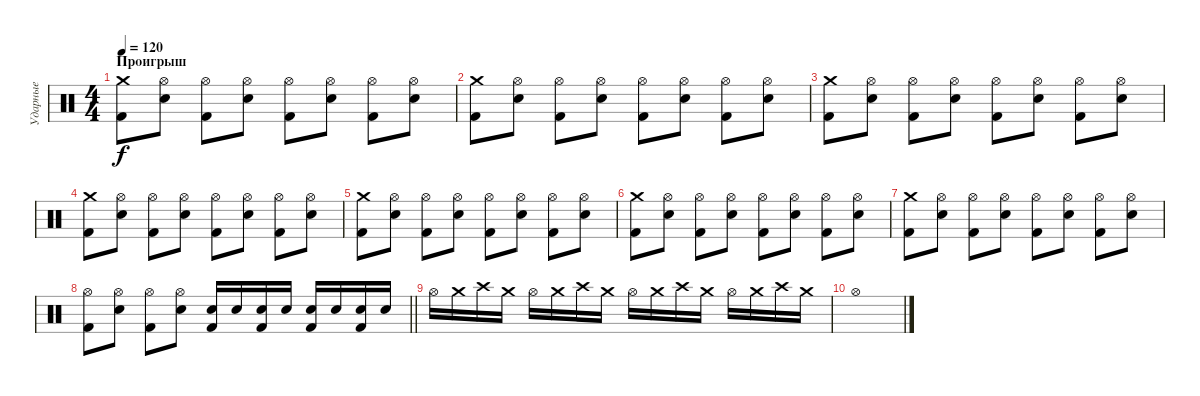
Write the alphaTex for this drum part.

\track ("Ударные" "Ударные") {instrument percussion}
\staff {score}
\articulation defaults
\ts (4 4)
\section ("" "Проигрыш")
\tempo 120
\clef neutral
\ks c
("Crash medium (hit)" "Kick (hit) 2").8{dy f} ("Hi-Hat (open)" "Snare (hit) 2").8 ("Hi-Hat (open)" "Kick (hit) 2").8 ("Hi-Hat (open)" "Snare (hit) 2").8 ("Hi-Hat (open)" "Kick (hit) 2").8 ("Hi-Hat (open)" "Snare (hit) 2").8 ("Hi-Hat (open)" "Kick (hit) 2").8 ("Hi-Hat (open)" "Snare (hit) 2").8 |
("Crash medium (hit)" "Kick (hit) 2").8 ("Hi-Hat (open)" "Snare (hit) 2").8 ("Hi-Hat (open)" "Kick (hit) 2").8 ("Hi-Hat (open)" "Snare (hit) 2").8 ("Hi-Hat (open)" "Kick (hit) 2").8 ("Hi-Hat (open)" "Snare (hit) 2").8 ("Hi-Hat (open)" "Kick (hit) 2").8 ("Hi-Hat (open)" "Snare (hit) 2").8 |
("Crash medium (hit)" "Kick (hit) 2").8 ("Hi-Hat (open)" "Snare (hit) 2").8 ("Hi-Hat (open)" "Kick (hit) 2").8 ("Hi-Hat (open)" "Snare (hit) 2").8 ("Hi-Hat (open)" "Kick (hit) 2").8 ("Hi-Hat (open)" "Snare (hit) 2").8 ("Hi-Hat (open)" "Kick (hit) 2").8 ("Hi-Hat (open)" "Snare (hit) 2").8 |
("Crash medium (hit)" "Kick (hit) 2").8 ("Hi-Hat (open)" "Snare (hit) 2").8 ("Hi-Hat (open)" "Kick (hit) 2").8 ("Hi-Hat (open)" "Snare (hit) 2").8 ("Hi-Hat (open)" "Kick (hit) 2").8 ("Hi-Hat (open)" "Snare (hit) 2").8 ("Hi-Hat (open)" "Kick (hit) 2").8 ("Hi-Hat (open)" "Snare (hit) 2").8 |
("Crash medium (hit)" "Kick (hit) 2").8 ("Hi-Hat (open)" "Snare (hit) 2").8 ("Hi-Hat (open)" "Kick (hit) 2").8 ("Hi-Hat (open)" "Snare (hit) 2").8 ("Hi-Hat (open)" "Kick (hit) 2").8 ("Hi-Hat (open)" "Snare (hit) 2").8 ("Hi-Hat (open)" "Kick (hit) 2").8 ("Hi-Hat (open)" "Snare (hit) 2").8 |
("Crash medium (hit)" "Kick (hit) 2").8 ("Hi-Hat (open)" "Snare (hit) 2").8 ("Hi-Hat (open)" "Kick (hit) 2").8 ("Hi-Hat (open)" "Snare (hit) 2").8 ("Hi-Hat (open)" "Kick (hit) 2").8 ("Hi-Hat (open)" "Snare (hit) 2").8 ("Hi-Hat (open)" "Kick (hit) 2").8 ("Hi-Hat (open)" "Snare (hit) 2").8 |
("Crash medium (hit)" "Kick (hit) 2").8 ("Hi-Hat (open)" "Snare (hit) 2").8 ("Hi-Hat (open)" "Kick (hit) 2").8 ("Hi-Hat (open)" "Snare (hit) 2").8 ("Hi-Hat (open)" "Kick (hit) 2").8 ("Hi-Hat (open)" "Snare (hit) 2").8 ("Hi-Hat (open)" "Kick (hit) 2").8 ("Hi-Hat (open)" "Snare (hit) 2").8 |
\barLineRight lightlight
("Hi-Hat (open)" "Kick (hit) 2").8 ("Hi-Hat (open)" "Snare (hit) 2").8 ("Hi-Hat (open)" "Kick (hit) 2").8 ("Hi-Hat (open)" "Snare (hit) 2").8 ("Snare (hit) 2" "Kick (hit) 2").16 "Snare (hit) 2".16 ("Snare (hit) 2" "Kick (hit) 2").16 "Snare (hit) 2".16 ("Snare (hit) 2" "Kick (hit) 2").16 "Snare (hit) 2".16 ("Snare (hit) 2" "Kick (hit) 2").16 "Snare (hit) 2".16 |
"Hi-Hat (open)".16 "Crash medium (hit)".16 "Crash high (hit)".16 "Crash medium (hit)".16 "Hi-Hat (open)".16 "Crash medium (hit)".16 "Crash high (hit)".16 "Crash medium (hit)".16 "Hi-Hat (open)".16 "Crash medium (hit)".16 "Crash high (hit)".16 "Crash medium (hit)".16 "Hi-Hat (open)".16 "Crash medium (hit)".16 "Crash high (hit)".16 "Crash medium (hit)".16 |
"Hi-Hat (open)".1
